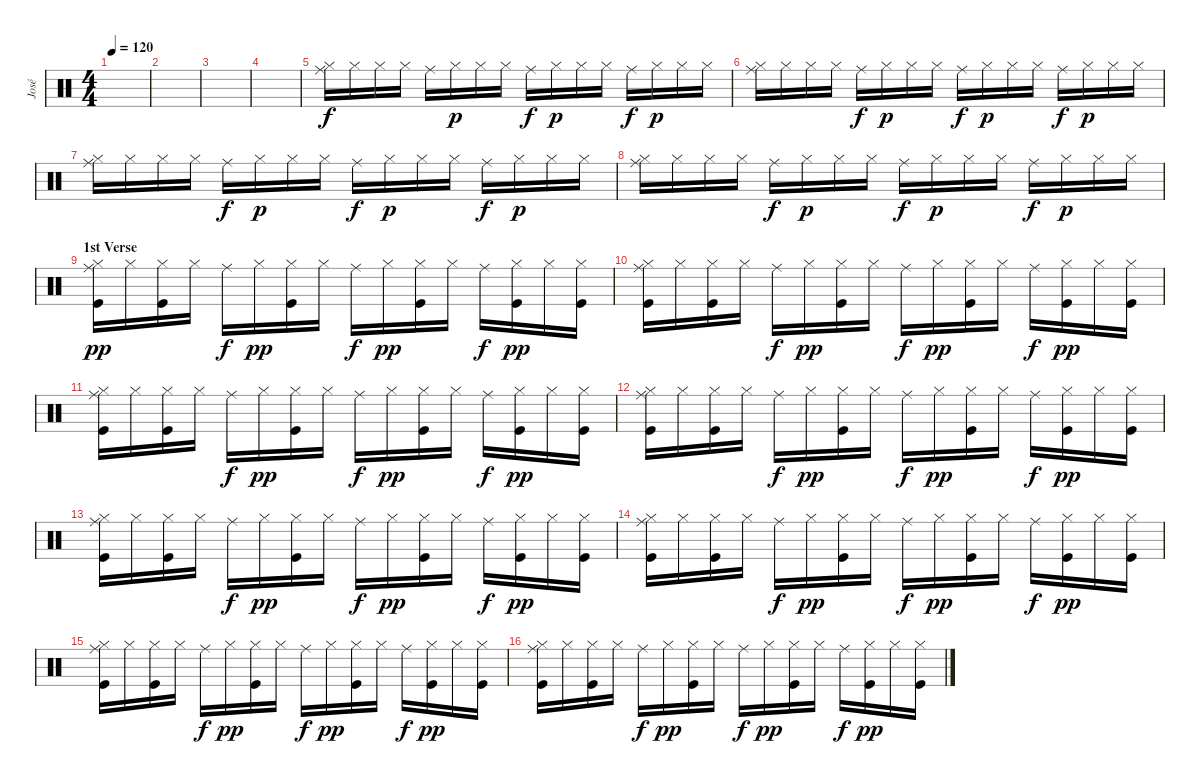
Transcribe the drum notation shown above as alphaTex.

\track ("José" "José") {instrument percussion}
\staff {score}
\articulation defaults
\ts (4 4)
\tempo 120
\clef neutral
\ks c
|
|
|
|
("Ride (middle)" "Hi-Hat (closed)").16 "Hi-Hat (closed)".16 "Hi-Hat (closed)".16 "Hi-Hat (closed)".16 "Ride (middle)".16{dy f} "Hi-Hat (closed)".16{dy p} "Hi-Hat (closed)".16 "Hi-Hat (closed)".16 "Ride (middle)".16{dy f} "Hi-Hat (closed)".16{dy p} "Hi-Hat (closed)".16 "Hi-Hat (closed)".16 "Ride (middle)".16{dy f} "Hi-Hat (closed)".16{dy p} "Hi-Hat (closed)".16 "Hi-Hat (closed)".16 |
("Ride (middle)" "Hi-Hat (closed)").16 "Hi-Hat (closed)".16 "Hi-Hat (closed)".16 "Hi-Hat (closed)".16 "Ride (middle)".16{dy f} "Hi-Hat (closed)".16{dy p} "Hi-Hat (closed)".16 "Hi-Hat (closed)".16 "Ride (middle)".16{dy f} "Hi-Hat (closed)".16{dy p} "Hi-Hat (closed)".16 "Hi-Hat (closed)".16 "Ride (middle)".16{dy f} "Hi-Hat (closed)".16{dy p} "Hi-Hat (closed)".16 "Hi-Hat (closed)".16 |
("Ride (middle)" "Hi-Hat (closed)").16 "Hi-Hat (closed)".16 "Hi-Hat (closed)".16 "Hi-Hat (closed)".16 "Ride (middle)".16{dy f} "Hi-Hat (closed)".16{dy p} "Hi-Hat (closed)".16 "Hi-Hat (closed)".16 "Ride (middle)".16{dy f} "Hi-Hat (closed)".16{dy p} "Hi-Hat (closed)".16 "Hi-Hat (closed)".16 "Ride (middle)".16{dy f} "Hi-Hat (closed)".16{dy p} "Hi-Hat (closed)".16 "Hi-Hat (closed)".16 |
("Ride (middle)" "Hi-Hat (closed)").16 "Hi-Hat (closed)".16 "Hi-Hat (closed)".16 "Hi-Hat (closed)".16 "Ride (middle)".16{dy f} "Hi-Hat (closed)".16{dy p} "Hi-Hat (closed)".16 "Hi-Hat (closed)".16 "Ride (middle)".16{dy f} "Hi-Hat (closed)".16{dy p} "Hi-Hat (closed)".16 "Hi-Hat (closed)".16 "Ride (middle)".16{dy f} "Hi-Hat (closed)".16{dy p} "Hi-Hat (closed)".16 "Hi-Hat (closed)".16 |
\section ("" "1st Verse")
("Ride (middle)" "Hi-Hat (closed)" "Kick (hit)").16{dy pp} "Hi-Hat (closed)".16 ("Hi-Hat (closed)" "Kick (hit)").16 "Hi-Hat (closed)".16 "Ride (middle)".16{dy f} "Hi-Hat (closed)".16{dy pp} ("Hi-Hat (closed)" "Kick (hit)").16 "Hi-Hat (closed)".16 "Ride (middle)".16{dy f} "Hi-Hat (closed)".16{dy pp} ("Hi-Hat (closed)" "Kick (hit)").16 "Hi-Hat (closed)".16 "Ride (middle)".16{dy f} ("Hi-Hat (closed)" "Kick (hit)").16{dy pp} "Hi-Hat (closed)".16 ("Hi-Hat (closed)" "Kick (hit)").16 |
("Ride (middle)" "Hi-Hat (closed)" "Kick (hit)").16 "Hi-Hat (closed)".16 ("Hi-Hat (closed)" "Kick (hit)").16 "Hi-Hat (closed)".16 "Ride (middle)".16{dy f} "Hi-Hat (closed)".16{dy pp} ("Hi-Hat (closed)" "Kick (hit)").16 "Hi-Hat (closed)".16 "Ride (middle)".16{dy f} "Hi-Hat (closed)".16{dy pp} ("Hi-Hat (closed)" "Kick (hit)").16 "Hi-Hat (closed)".16 "Ride (middle)".16{dy f} ("Hi-Hat (closed)" "Kick (hit)").16{dy pp} "Hi-Hat (closed)".16 ("Hi-Hat (closed)" "Kick (hit)").16 |
("Ride (middle)" "Hi-Hat (closed)" "Kick (hit)").16 "Hi-Hat (closed)".16 ("Hi-Hat (closed)" "Kick (hit)").16 "Hi-Hat (closed)".16 "Ride (middle)".16{dy f} "Hi-Hat (closed)".16{dy pp} ("Hi-Hat (closed)" "Kick (hit)").16 "Hi-Hat (closed)".16 "Ride (middle)".16{dy f} "Hi-Hat (closed)".16{dy pp} ("Hi-Hat (closed)" "Kick (hit)").16 "Hi-Hat (closed)".16 "Ride (middle)".16{dy f} ("Hi-Hat (closed)" "Kick (hit)").16{dy pp} "Hi-Hat (closed)".16 ("Hi-Hat (closed)" "Kick (hit)").16 |
("Ride (middle)" "Hi-Hat (closed)" "Kick (hit)").16 "Hi-Hat (closed)".16 ("Hi-Hat (closed)" "Kick (hit)").16 "Hi-Hat (closed)".16 "Ride (middle)".16{dy f} "Hi-Hat (closed)".16{dy pp} ("Hi-Hat (closed)" "Kick (hit)").16 "Hi-Hat (closed)".16 "Ride (middle)".16{dy f} "Hi-Hat (closed)".16{dy pp} ("Hi-Hat (closed)" "Kick (hit)").16 "Hi-Hat (closed)".16 "Ride (middle)".16{dy f} ("Hi-Hat (closed)" "Kick (hit)").16{dy pp} "Hi-Hat (closed)".16 ("Hi-Hat (closed)" "Kick (hit)").16 |
("Ride (middle)" "Hi-Hat (closed)" "Kick (hit)").16 "Hi-Hat (closed)".16 ("Hi-Hat (closed)" "Kick (hit)").16 "Hi-Hat (closed)".16 "Ride (middle)".16{dy f} "Hi-Hat (closed)".16{dy pp} ("Hi-Hat (closed)" "Kick (hit)").16 "Hi-Hat (closed)".16 "Ride (middle)".16{dy f} "Hi-Hat (closed)".16{dy pp} ("Hi-Hat (closed)" "Kick (hit)").16 "Hi-Hat (closed)".16 "Ride (middle)".16{dy f} ("Hi-Hat (closed)" "Kick (hit)").16{dy pp} "Hi-Hat (closed)".16 ("Hi-Hat (closed)" "Kick (hit)").16 |
("Ride (middle)" "Hi-Hat (closed)" "Kick (hit)").16 "Hi-Hat (closed)".16 ("Hi-Hat (closed)" "Kick (hit)").16 "Hi-Hat (closed)".16 "Ride (middle)".16{dy f} "Hi-Hat (closed)".16{dy pp} ("Hi-Hat (closed)" "Kick (hit)").16 "Hi-Hat (closed)".16 "Ride (middle)".16{dy f} "Hi-Hat (closed)".16{dy pp} ("Hi-Hat (closed)" "Kick (hit)").16 "Hi-Hat (closed)".16 "Ride (middle)".16{dy f} ("Hi-Hat (closed)" "Kick (hit)").16{dy pp} "Hi-Hat (closed)".16 ("Hi-Hat (closed)" "Kick (hit)").16 |
("Ride (middle)" "Hi-Hat (closed)" "Kick (hit)").16 "Hi-Hat (closed)".16 ("Hi-Hat (closed)" "Kick (hit)").16 "Hi-Hat (closed)".16 "Ride (middle)".16{dy f} "Hi-Hat (closed)".16{dy pp} ("Hi-Hat (closed)" "Kick (hit)").16 "Hi-Hat (closed)".16 "Ride (middle)".16{dy f} "Hi-Hat (closed)".16{dy pp} ("Hi-Hat (closed)" "Kick (hit)").16 "Hi-Hat (closed)".16 "Ride (middle)".16{dy f} ("Hi-Hat (closed)" "Kick (hit)").16{dy pp} "Hi-Hat (closed)".16 ("Hi-Hat (closed)" "Kick (hit)").16 |
("Ride (middle)" "Hi-Hat (closed)" "Kick (hit)").16 "Hi-Hat (closed)".16 ("Hi-Hat (closed)" "Kick (hit)").16 "Hi-Hat (closed)".16 "Ride (middle)".16{dy f} "Hi-Hat (closed)".16{dy pp} ("Hi-Hat (closed)" "Kick (hit)").16 "Hi-Hat (closed)".16 "Ride (middle)".16{dy f} "Hi-Hat (closed)".16{dy pp} ("Hi-Hat (closed)" "Kick (hit)").16 "Hi-Hat (closed)".16 "Ride (middle)".16{dy f} ("Hi-Hat (closed)" "Kick (hit)").16{dy pp} "Hi-Hat (closed)".16 ("Hi-Hat (closed)" "Kick (hit)").16
